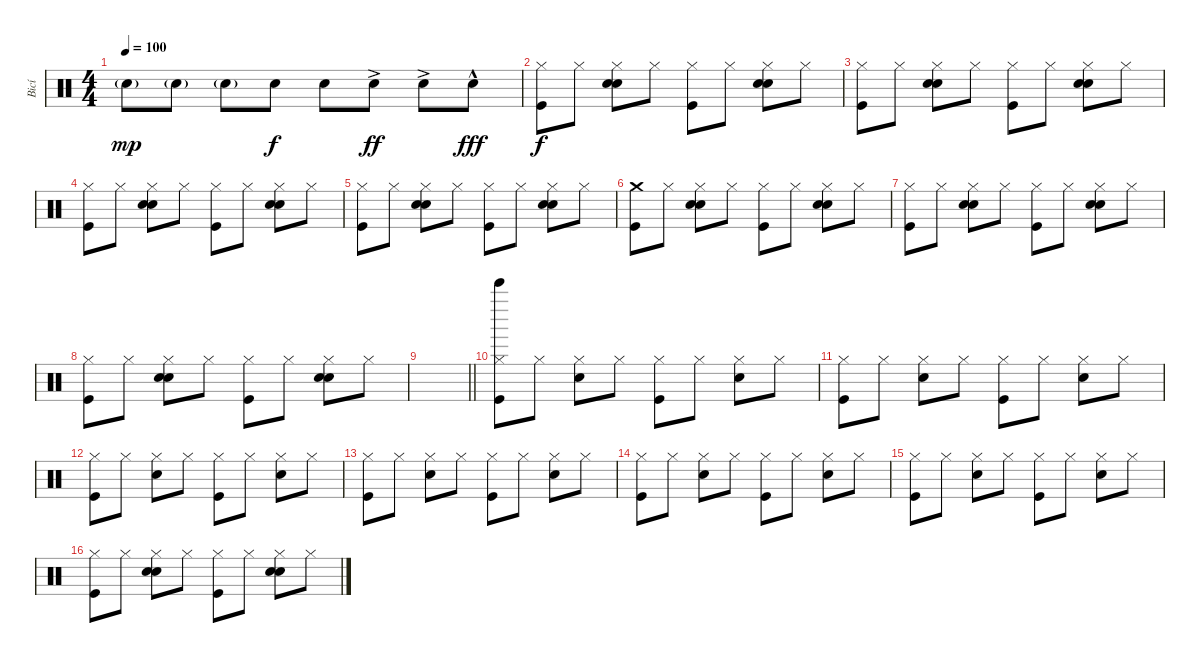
\track ("Bicí" "Bicí") {instrument percussion}
\staff {score}
\articulation defaults
\ts (4 4)
\tempo 100
\clef neutral
\ks c "Electric Snare (hit)"{g}.8{dy mp} "Electric Snare (hit)"{g}.8 "Electric Snare (hit)"{g}.8 "Electric Snare (hit)".8{dy f} "Electric Snare (hit)".8 "Electric Snare (hit)"{ac}.8{dy ff} "Electric Snare (hit)"{ac}.8 "Electric Snare (hit)"{hac}.8{dy fff}
|
("Hi-Hat (closed)" "Kick (hit)").8{dy f} "Hi-Hat (closed)".8 ("Hi-Hat (closed)" "Hand Clap (hit)" "Electric Snare (hit)").8 "Hi-Hat (closed)".8 ("Hi-Hat (closed)" "Kick (hit)").8 "Hi-Hat (closed)".8 ("Hi-Hat (closed)" "Hand Clap (hit)" "Electric Snare (hit)").8 "Hi-Hat (closed)".8 |
("Hi-Hat (closed)" "Kick (hit)").8 "Hi-Hat (closed)".8 ("Hi-Hat (closed)" "Hand Clap (hit)" "Electric Snare (hit)").8 "Hi-Hat (closed)".8 ("Hi-Hat (closed)" "Kick (hit)").8 "Hi-Hat (closed)".8 ("Hi-Hat (closed)" "Hand Clap (hit)" "Electric Snare (hit)").8 "Hi-Hat (closed)".8 |
("Hi-Hat (closed)" "Kick (hit)").8 "Hi-Hat (closed)".8 ("Hi-Hat (closed)" "Hand Clap (hit)" "Electric Snare (hit)").8 "Hi-Hat (closed)".8 ("Hi-Hat (closed)" "Kick (hit)").8 "Hi-Hat (closed)".8 ("Hi-Hat (closed)" "Hand Clap (hit)" "Electric Snare (hit)").8 "Hi-Hat (closed)".8 |
("Hi-Hat (closed)" "Kick (hit)").8 "Hi-Hat (closed)".8 ("Hi-Hat (closed)" "Hand Clap (hit)" "Electric Snare (hit)").8 "Hi-Hat (closed)".8 ("Hi-Hat (closed)" "Kick (hit)").8 "Hi-Hat (closed)".8 ("Hi-Hat (closed)" "Hand Clap (hit)" "Electric Snare (hit)").8 "Hi-Hat (closed)".8 |
("Crash medium (hit)" "Kick (hit)").8 "Hi-Hat (closed)".8 ("Hi-Hat (closed)" "Hand Clap (hit)" "Electric Snare (hit)").8 "Hi-Hat (closed)".8 ("Hi-Hat (closed)" "Kick (hit)").8 "Hi-Hat (closed)".8 ("Hi-Hat (closed)" "Hand Clap (hit)" "Electric Snare (hit)").8 "Hi-Hat (closed)".8 |
("Hi-Hat (closed)" "Kick (hit)").8 "Hi-Hat (closed)".8 ("Hi-Hat (closed)" "Hand Clap (hit)" "Electric Snare (hit)").8 "Hi-Hat (closed)".8 ("Hi-Hat (closed)" "Kick (hit)").8 "Hi-Hat (closed)".8 ("Hi-Hat (closed)" "Hand Clap (hit)" "Electric Snare (hit)").8 "Hi-Hat (closed)".8 |
("Hi-Hat (closed)" "Kick (hit)").8 "Hi-Hat (closed)".8 ("Hi-Hat (closed)" "Hand Clap (hit)" "Electric Snare (hit)").8 "Hi-Hat (closed)".8 ("Hi-Hat (closed)" "Kick (hit)").8 "Hi-Hat (closed)".8 ("Hi-Hat (closed)" "Hand Clap (hit)" "Electric Snare (hit)").8 "Hi-Hat (closed)".8 |
\barLineRight lightlight
|
\section ("" "")
("Bell Tree (hit)" "Hi-Hat (closed)" "Kick (hit)").8 "Hi-Hat (closed)".8 ("Hi-Hat (closed)" "Electric Snare (hit)").8 "Hi-Hat (closed)".8 ("Hi-Hat (closed)" "Kick (hit)").8 "Hi-Hat (closed)".8 ("Hi-Hat (closed)" "Electric Snare (hit)").8 "Hi-Hat (closed)".8 |
("Hi-Hat (closed)" "Kick (hit)").8 "Hi-Hat (closed)".8 ("Hi-Hat (closed)" "Electric Snare (hit)").8 "Hi-Hat (closed)".8 ("Hi-Hat (closed)" "Kick (hit)").8 "Hi-Hat (closed)".8 ("Hi-Hat (closed)" "Electric Snare (hit)").8 "Hi-Hat (closed)".8 |
("Hi-Hat (closed)" "Kick (hit)").8 "Hi-Hat (closed)".8 ("Hi-Hat (closed)" "Electric Snare (hit)").8 "Hi-Hat (closed)".8 ("Hi-Hat (closed)" "Kick (hit)").8 "Hi-Hat (closed)".8 ("Hi-Hat (closed)" "Electric Snare (hit)").8 "Hi-Hat (closed)".8 |
("Hi-Hat (closed)" "Kick (hit)").8 "Hi-Hat (closed)".8 ("Hi-Hat (closed)" "Electric Snare (hit)").8 "Hi-Hat (closed)".8 ("Hi-Hat (closed)" "Kick (hit)").8 "Hi-Hat (closed)".8 ("Hi-Hat (closed)" "Electric Snare (hit)").8 "Hi-Hat (closed)".8 |
("Hi-Hat (closed)" "Kick (hit)").8 "Hi-Hat (closed)".8 ("Hi-Hat (closed)" "Electric Snare (hit)").8 "Hi-Hat (closed)".8 ("Hi-Hat (closed)" "Kick (hit)").8 "Hi-Hat (closed)".8 ("Hi-Hat (closed)" "Electric Snare (hit)").8 "Hi-Hat (closed)".8 |
("Hi-Hat (closed)" "Kick (hit)").8 "Hi-Hat (closed)".8 ("Hi-Hat (closed)" "Electric Snare (hit)").8 "Hi-Hat (closed)".8 ("Hi-Hat (closed)" "Kick (hit)").8 "Hi-Hat (closed)".8 ("Hi-Hat (closed)" "Electric Snare (hit)").8 "Hi-Hat (closed)".8 |
("Hi-Hat (closed)" "Kick (hit)").8 "Hi-Hat (closed)".8 ("Hi-Hat (closed)" "Hand Clap (hit)" "Electric Snare (hit)").8 "Hi-Hat (closed)".8 ("Hi-Hat (closed)" "Kick (hit)").8 "Hi-Hat (closed)".8 ("Hi-Hat (closed)" "Hand Clap (hit)" "Electric Snare (hit)").8 "Hi-Hat (closed)".8
